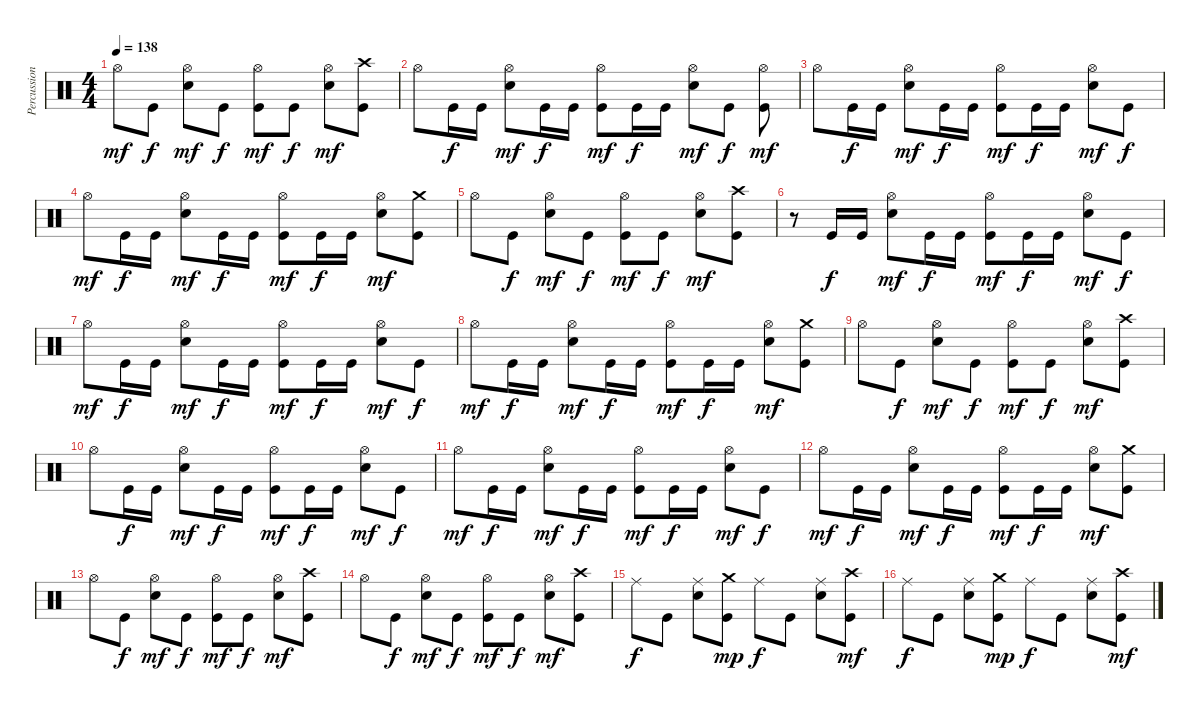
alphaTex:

\track ("Percussions" "Percussion") {instrument percussion}
\staff {score}
\articulation defaults
\ts (4 4)
\tempo 138
\clef neutral
\ks c "Hi-Hat (open)".8{dy mf} "Kick (hit)".8{dy f}
("Electric Snare (hit)" "Hi-Hat (open)").8{dy mf} "Kick (hit)".8{dy f} ("Kick (hit)" "Hi-Hat (open)").8{dy mf} "Kick (hit)".8{dy f} ("Electric Snare (hit)" "Hi-Hat (open)").8{dy mf} ("Kick (hit)" "Crash high (hit)").8 |
"Hi-Hat (open)".8 "Kick (hit)".16{dy f} "Kick (hit)".16 ("Electric Snare (hit)" "Hi-Hat (open)").8{dy mf} "Kick (hit)".16{dy f} "Kick (hit)".16 ("Kick (hit)" "Hi-Hat (open)").8{dy mf} "Kick (hit)".16{dy f} "Kick (hit)".16 ("Electric Snare (hit)" "Hi-Hat (open)").8{dy mf} "Kick (hit)".8{dy f} ("Kick (hit)" "Hi-Hat (open)").8{dy mf} |
"Hi-Hat (open)".8 "Kick (hit)".16{dy f} "Kick (hit)".16 ("Electric Snare (hit)" "Hi-Hat (open)").8{dy mf} "Kick (hit)".16{dy f} "Kick (hit)".16 ("Kick (hit)" "Hi-Hat (open)").8{dy mf} "Kick (hit)".16{dy f} "Kick (hit)".16 ("Electric Snare (hit)" "Hi-Hat (open)").8{dy mf} "Kick (hit)".8{dy f} |
"Hi-Hat (open)".8{dy mf} "Kick (hit)".16{dy f} "Kick (hit)".16 ("Electric Snare (hit)" "Hi-Hat (open)").8{dy mf} "Kick (hit)".16{dy f} "Kick (hit)".16 ("Kick (hit)" "Hi-Hat (open)").8{dy mf} "Kick (hit)".16{dy f} "Kick (hit)".16 ("Electric Snare (hit)" "Hi-Hat (open)").8{dy mf} ("Kick (hit)" "Crash medium (hit)").8 |
"Hi-Hat (open)".8 "Kick (hit)".8{dy f} ("Electric Snare (hit)" "Hi-Hat (open)").8{dy mf} "Kick (hit)".8{dy f} ("Kick (hit)" "Hi-Hat (open)").8{dy mf} "Kick (hit)".8{dy f} ("Electric Snare (hit)" "Hi-Hat (open)").8{dy mf} ("Kick (hit)" "Crash high (hit)").8 |
r.8 "Kick (hit)".16{dy f} "Kick (hit)".16 ("Electric Snare (hit)" "Hi-Hat (open)").8{dy mf} "Kick (hit)".16{dy f} "Kick (hit)".16 ("Kick (hit)" "Hi-Hat (open)").8{dy mf} "Kick (hit)".16{dy f} "Kick (hit)".16 ("Electric Snare (hit)" "Hi-Hat (open)").8{dy mf} "Kick (hit)".8{dy f} |
"Hi-Hat (open)".8{dy mf} "Kick (hit)".16{dy f} "Kick (hit)".16 ("Electric Snare (hit)" "Hi-Hat (open)").8{dy mf} "Kick (hit)".16{dy f} "Kick (hit)".16 ("Kick (hit)" "Hi-Hat (open)").8{dy mf} "Kick (hit)".16{dy f} "Kick (hit)".16 ("Electric Snare (hit)" "Hi-Hat (open)").8{dy mf} "Kick (hit)".8{dy f} |
"Hi-Hat (open)".8{dy mf} "Kick (hit)".16{dy f} "Kick (hit)".16 ("Electric Snare (hit)" "Hi-Hat (open)").8{dy mf} "Kick (hit)".16{dy f} "Kick (hit)".16 ("Kick (hit)" "Hi-Hat (open)").8{dy mf} "Kick (hit)".16{dy f} "Kick (hit)".16 ("Electric Snare (hit)" "Hi-Hat (open)").8{dy mf} ("Kick (hit)" "Crash medium (hit)").8 |
"Hi-Hat (open)".8 "Kick (hit)".8{dy f} ("Electric Snare (hit)" "Hi-Hat (open)").8{dy mf} "Kick (hit)".8{dy f} ("Kick (hit)" "Hi-Hat (open)").8{dy mf} "Kick (hit)".8{dy f} ("Electric Snare (hit)" "Hi-Hat (open)").8{dy mf} ("Kick (hit)" "Crash high (hit)").8 |
"Hi-Hat (open)".8 "Kick (hit)".16{dy f} "Kick (hit)".16 ("Electric Snare (hit)" "Hi-Hat (open)").8{dy mf} "Kick (hit)".16{dy f} "Kick (hit)".16 ("Kick (hit)" "Hi-Hat (open)").8{dy mf} "Kick (hit)".16{dy f} "Kick (hit)".16 ("Electric Snare (hit)" "Hi-Hat (open)").8{dy mf} "Kick (hit)".8{dy f} |
"Hi-Hat (open)".8{dy mf} "Kick (hit)".16{dy f} "Kick (hit)".16 ("Electric Snare (hit)" "Hi-Hat (open)").8{dy mf} "Kick (hit)".16{dy f} "Kick (hit)".16 ("Kick (hit)" "Hi-Hat (open)").8{dy mf} "Kick (hit)".16{dy f} "Kick (hit)".16 ("Electric Snare (hit)" "Hi-Hat (open)").8{dy mf} "Kick (hit)".8{dy f} |
"Hi-Hat (open)".8{dy mf} "Kick (hit)".16{dy f} "Kick (hit)".16 ("Electric Snare (hit)" "Hi-Hat (open)").8{dy mf} "Kick (hit)".16{dy f} "Kick (hit)".16 ("Kick (hit)" "Hi-Hat (open)").8{dy mf} "Kick (hit)".16{dy f} "Kick (hit)".16 ("Electric Snare (hit)" "Hi-Hat (open)").8{dy mf} ("Kick (hit)" "Crash medium (hit)").8 |
"Hi-Hat (open)".8 "Kick (hit)".8{dy f} ("Electric Snare (hit)" "Hi-Hat (open)").8{dy mf} "Kick (hit)".8{dy f} ("Kick (hit)" "Hi-Hat (open)").8{dy mf} "Kick (hit)".8{dy f} ("Electric Snare (hit)" "Hi-Hat (open)").8{dy mf} ("Kick (hit)" "Crash high (hit)").8 |
"Hi-Hat (open)".8 "Kick (hit)".8{dy f} ("Electric Snare (hit)" "Hi-Hat (open)").8{dy mf} "Kick (hit)".8{dy f} ("Kick (hit)" "Hi-Hat (open)").8{dy mf} "Kick (hit)".8{dy f} ("Electric Snare (hit)" "Hi-Hat (open)").8{dy mf} ("Kick (hit)" "Crash high (hit)").8 |
"Ride (middle)".8{dy f} "Kick (hit)".8 ("Electric Snare (hit)" "Ride (middle)").8 ("Kick (hit)" "Crash medium (hit)").8{dy mp} "Ride (middle)".8{dy f} "Kick (hit)".8 ("Electric Snare (hit)" "Ride (middle)").8 ("Kick (hit)" "Crash high (hit)").8{dy mf} |
"Ride (middle)".8{dy f} "Kick (hit)".8 ("Electric Snare (hit)" "Ride (middle)").8 ("Kick (hit)" "Crash medium (hit)").8{dy mp} "Ride (middle)".8{dy f} "Kick (hit)".8 ("Electric Snare (hit)" "Ride (middle)").8 ("Kick (hit)" "Crash high (hit)").8{dy mf}
